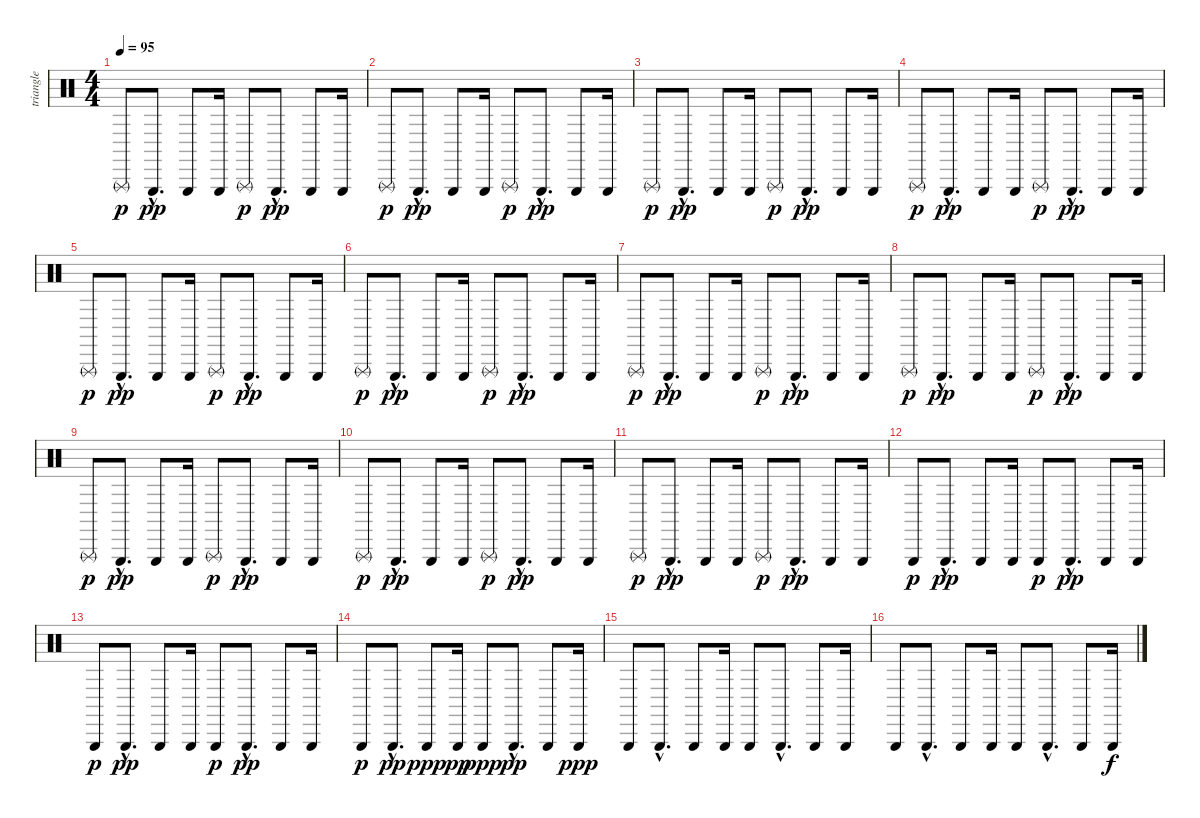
\track ("triangle" "triangle") {instrument percussion}
\staff {score}
\articulation defaults
\ts (4 4)
\tempo 95
\clef neutral
\ks c "Triangle (rnute)".8{dy p} "Triangle (hit)"{hac}.8{d dy pp} "Triangle (hit)".8 "Triangle (hit)".16 "Triangle (rnute)".8{dy p} "Triangle (hit)"{hac}.8{d dy pp} "Triangle (hit)".8 "Triangle (hit)".16
|
"Triangle (rnute)".8{dy p} "Triangle (hit)"{hac}.8{d dy pp} "Triangle (hit)".8 "Triangle (hit)".16 "Triangle (rnute)".8{dy p} "Triangle (hit)"{hac}.8{d dy pp} "Triangle (hit)".8 "Triangle (hit)".16 |
"Triangle (rnute)".8{dy p} "Triangle (hit)"{hac}.8{d dy pp} "Triangle (hit)".8 "Triangle (hit)".16 "Triangle (rnute)".8{dy p} "Triangle (hit)"{hac}.8{d dy pp} "Triangle (hit)".8 "Triangle (hit)".16 |
"Triangle (rnute)".8{dy p} "Triangle (hit)"{hac}.8{d dy pp} "Triangle (hit)".8 "Triangle (hit)".16 "Triangle (rnute)".8{dy p} "Triangle (hit)"{hac}.8{d dy pp} "Triangle (hit)".8 "Triangle (hit)".16 |
"Triangle (rnute)".8{dy p} "Triangle (hit)"{hac}.8{d dy pp} "Triangle (hit)".8 "Triangle (hit)".16 "Triangle (rnute)".8{dy p} "Triangle (hit)"{hac}.8{d dy pp} "Triangle (hit)".8 "Triangle (hit)".16 |
"Triangle (rnute)".8{dy p} "Triangle (hit)"{hac}.8{d dy pp} "Triangle (hit)".8 "Triangle (hit)".16 "Triangle (rnute)".8{dy p} "Triangle (hit)"{hac}.8{d dy pp} "Triangle (hit)".8 "Triangle (hit)".16 |
"Triangle (rnute)".8{dy p} "Triangle (hit)"{hac}.8{d dy pp} "Triangle (hit)".8 "Triangle (hit)".16 "Triangle (rnute)".8{dy p} "Triangle (hit)"{hac}.8{d dy pp} "Triangle (hit)".8 "Triangle (hit)".16 |
"Triangle (rnute)".8{dy p} "Triangle (hit)"{hac}.8{d dy pp} "Triangle (hit)".8 "Triangle (hit)".16 "Triangle (rnute)".8{dy p} "Triangle (hit)"{hac}.8{d dy pp} "Triangle (hit)".8 "Triangle (hit)".16 |
"Triangle (rnute)".8{dy p} "Triangle (hit)"{hac}.8{d dy pp} "Triangle (hit)".8 "Triangle (hit)".16 "Triangle (rnute)".8{dy p} "Triangle (hit)"{hac}.8{d dy pp} "Triangle (hit)".8 "Triangle (hit)".16 |
"Triangle (rnute)".8{dy p} "Triangle (hit)"{hac}.8{d dy pp} "Triangle (hit)".8 "Triangle (hit)".16 "Triangle (rnute)".8{dy p} "Triangle (hit)"{hac}.8{d dy pp} "Triangle (hit)".8 "Triangle (hit)".16 |
"Triangle (rnute)".8{dy p} "Triangle (hit)"{hac}.8{d dy pp} "Triangle (hit)".8 "Triangle (hit)".16 "Triangle (rnute)".8{dy p} "Triangle (hit)"{hac}.8{d dy pp} "Triangle (hit)".8 "Triangle (hit)".16 |
"Triangle (hit)".8{dy p} "Triangle (hit)"{hac}.8{d dy pp} "Triangle (hit)".8 "Triangle (hit)".16 "Triangle (hit)".8{dy p} "Triangle (hit)"{hac}.8{d dy pp} "Triangle (hit)".8 "Triangle (hit)".16 |
"Triangle (hit)".8{dy p} "Triangle (hit)"{hac}.8{d dy pp} "Triangle (hit)".8 "Triangle (hit)".16 "Triangle (hit)".8{dy p} "Triangle (hit)"{hac}.8{d dy pp} "Triangle (hit)".8 "Triangle (hit)".16 |
"Triangle (hit)".8{dy p} "Triangle (hit)"{hac}.8{d dy pp} "Triangle (hit)".8{dy ppp} "Triangle (hit)".16{dy pp} "Triangle (hit)".8{dy ppp} "Triangle (hit)"{hac}.8{d dy pp} "Triangle (hit)".8 "Triangle (hit)".16{dy ppp} |
"Triangle (hit)".8 "Triangle (hit)"{hac}.8{d} "Triangle (hit)".8 "Triangle (hit)".16 "Triangle (hit)".8 "Triangle (hit)"{hac}.8{d} "Triangle (hit)".8 "Triangle (hit)".16 |
"Triangle (hit)".8 "Triangle (hit)"{hac}.8{d} "Triangle (hit)".8 "Triangle (hit)".16 "Triangle (hit)".8 "Triangle (hit)"{hac}.8{d} "Triangle (hit)".8 "Triangle (hit)"{x}.16{dy f}
